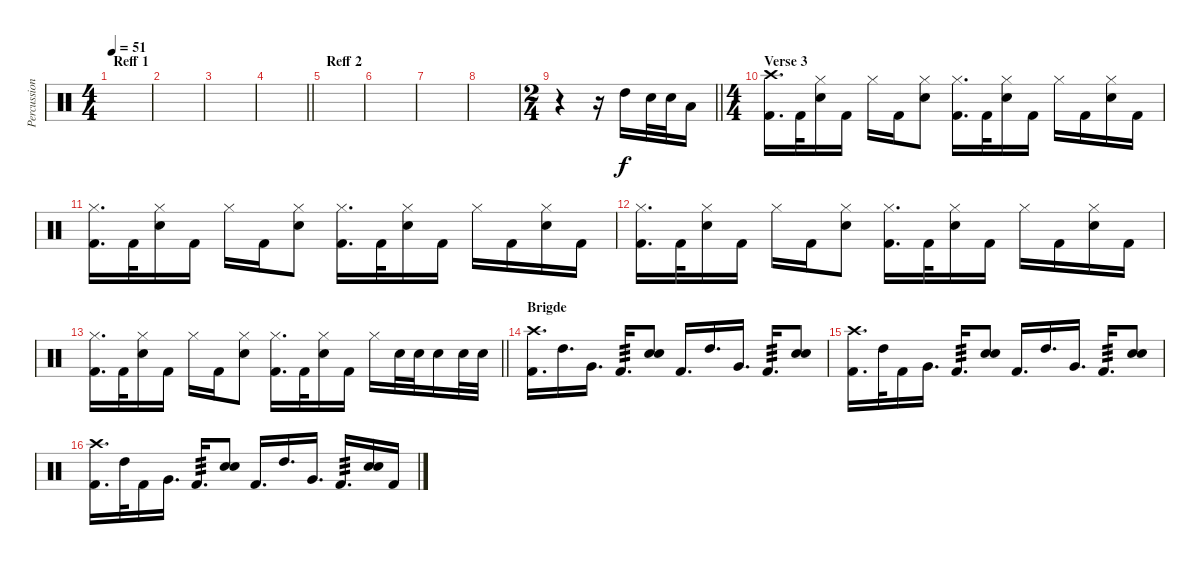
\track ("Percussion 1" "Percussion") {instrument percussion}
\staff {score}
\articulation defaults
\ts (4 4)
\section ("" "Reff 1")
\tempo 51
\clef neutral
\ks c
|
|
|
\barLineRight lightlight
|
\section ("" "Reff 2")
|
|
|
|
\ts (2 4)
\barLineRight lightlight
r.4 r.16 "High Tom (hit)".16 "Electric Snare (hit)".32 "Electric Snare (hit)".32 "Low Tom (hit)".16 |
\ts (4 4)
\section ("" "Verse 3")
("Crash high (hit)" "Kick (hit) 2").16{d} "Kick (hit) 2".32 ("Hi-Hat (closed)" "Electric Snare (hit)").16 "Kick (hit) 2".16 "Hi-Hat (closed)".16 "Kick (hit) 2".16 ("Hi-Hat (closed)" "Electric Snare (hit)").8 ("Hi-Hat (closed)" "Kick (hit) 2").16{d} "Kick (hit) 2".32 ("Hi-Hat (closed)" "Electric Snare (hit)").16 "Kick (hit) 2".16 "Hi-Hat (closed)".16 "Kick (hit) 2".16 ("Hi-Hat (closed)" "Electric Snare (hit)").16 "Kick (hit) 2".16 |
("Hi-Hat (closed)" "Kick (hit) 2").16{d} "Kick (hit) 2".32 ("Hi-Hat (closed)" "Electric Snare (hit)").16 "Kick (hit) 2".16 "Hi-Hat (closed)".16 "Kick (hit) 2".16 ("Hi-Hat (closed)" "Electric Snare (hit)").8 ("Hi-Hat (closed)" "Kick (hit) 2").16{d} "Kick (hit) 2".32 ("Hi-Hat (closed)" "Electric Snare (hit)").16 "Kick (hit) 2".16 "Hi-Hat (closed)".16 "Kick (hit) 2".16 ("Hi-Hat (closed)" "Electric Snare (hit)").16 "Kick (hit) 2".16 |
("Hi-Hat (closed)" "Kick (hit) 2").16{d} "Kick (hit) 2".32 ("Hi-Hat (closed)" "Electric Snare (hit)").16 "Kick (hit) 2".16 "Hi-Hat (closed)".16 "Kick (hit) 2".16 ("Hi-Hat (closed)" "Electric Snare (hit)").8 ("Hi-Hat (closed)" "Kick (hit) 2").16{d} "Kick (hit) 2".32 ("Hi-Hat (closed)" "Electric Snare (hit)").16 "Kick (hit) 2".16 "Hi-Hat (closed)".16 "Kick (hit) 2".16 ("Hi-Hat (closed)" "Electric Snare (hit)").16 "Kick (hit) 2".16 |
\barLineRight lightlight
("Hi-Hat (closed)" "Kick (hit) 2").16{d} "Kick (hit) 2".32 ("Hi-Hat (closed)" "Electric Snare (hit)").16 "Kick (hit) 2".16 "Hi-Hat (closed)".16 "Kick (hit) 2".16 ("Hi-Hat (closed)" "Electric Snare (hit)").8 ("Hi-Hat (closed)" "Kick (hit) 2").16{d} "Kick (hit) 2".32 ("Hi-Hat (closed)" "Electric Snare (hit)").16 "Kick (hit) 2".16 "Hi-Hat (closed)".16 "Electric Snare (hit)".32 "Electric Snare (hit)".32 "Electric Snare (hit)".16 "Electric Snare (hit)".32 "Electric Snare (hit)".32 |
\section ("" "Brigde")
("Crash high (hit)" "Kick (hit) 2").16{d} "High Tom (hit)".16{d} "Very Low Tom (hit)".16{d} "Kick (hit) 2".16{d tp 3} ("Electric Snare (hit)" "Electric Snare (hit)").8{bd 60} "Kick (hit) 2".16{d} "High Tom (hit)".16{d} "Very Low Tom (hit)".16{d} "Kick (hit) 2".16{d tp 3} ("Electric Snare (hit)" "Electric Snare (hit)").8{bd 60} |
("Crash high (hit)" "Kick (hit) 2").16{d} "High Tom (hit)".32 "Kick (hit) 2".16 "Very Low Tom (hit)".16{d} "Kick (hit) 2".16{d tp 3} ("Electric Snare (hit)" "Electric Snare (hit)").8{bd 60} "Kick (hit) 2".16{d} "High Tom (hit)".16{d} "Very Low Tom (hit)".16{d} "Kick (hit) 2".16{d tp 3} ("Electric Snare (hit)" "Electric Snare (hit)").8{bd 60} |
("Crash high (hit)" "Kick (hit) 2").16{d} "High Tom (hit)".32 "Kick (hit) 2".16 "Very Low Tom (hit)".16{d} "Kick (hit) 2".16{d tp 3} ("Electric Snare (hit)" "Electric Snare (hit)").8{bd 60} "Kick (hit) 2".16{d} "High Tom (hit)".16{d} "Very Low Tom (hit)".16{d} "Kick (hit) 2".16{d tp 3} ("Electric Snare (hit)" "Electric Snare (hit)").16{bd 60} "Kick (hit) 2".16
